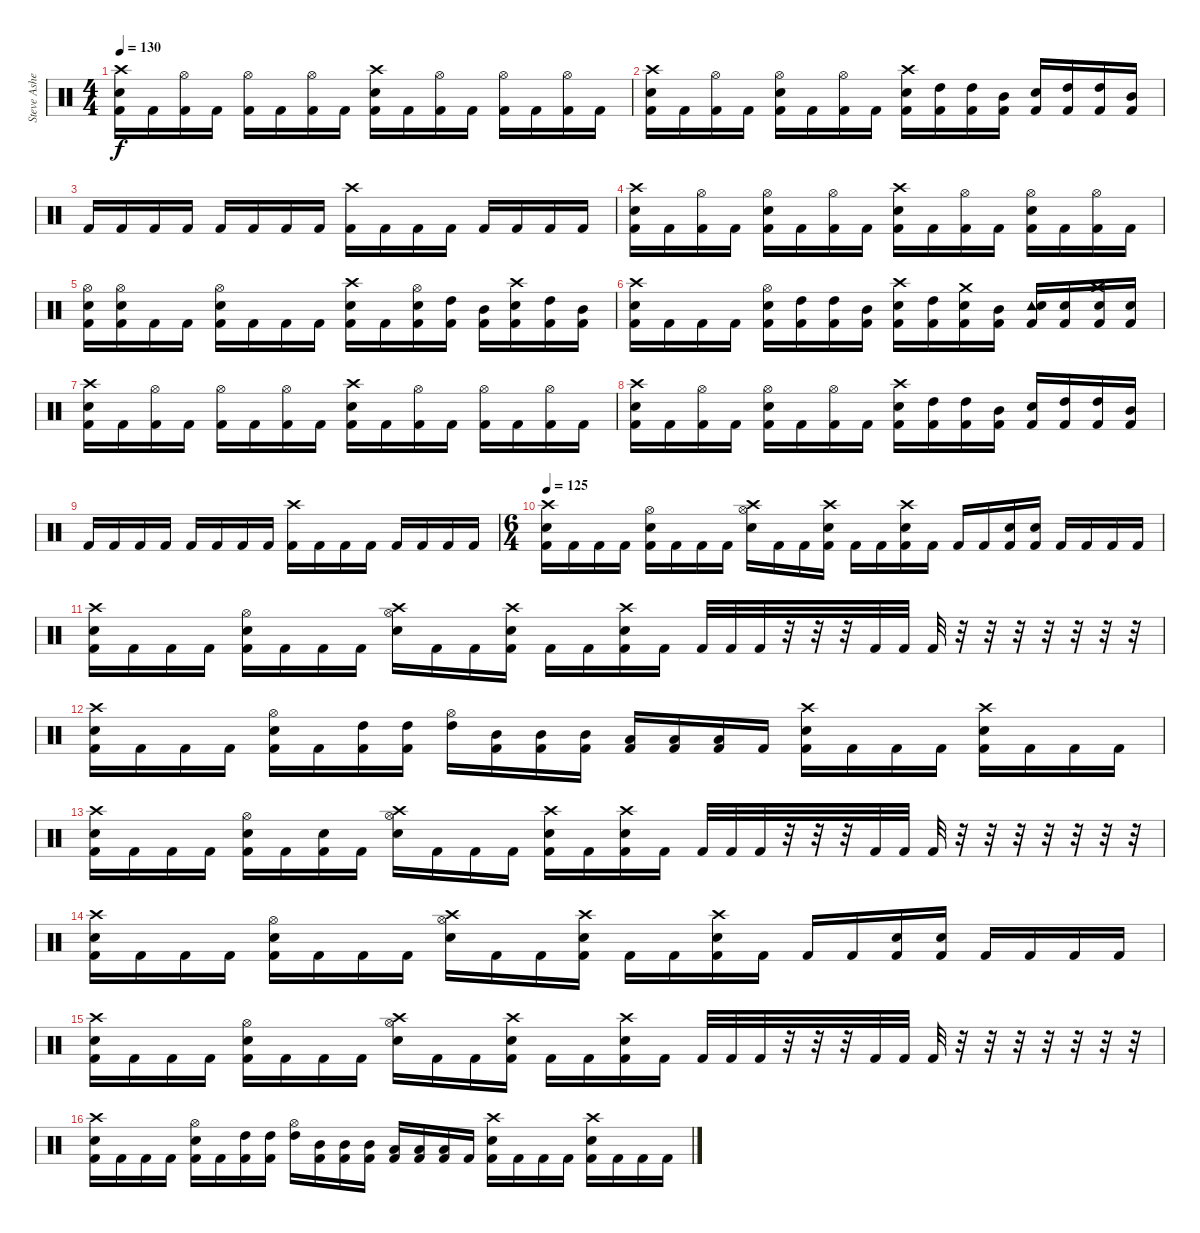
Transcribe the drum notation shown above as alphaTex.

\track ("Steve Asheim" "Steve Ashe") {instrument percussion}
\staff {score}
\articulation defaults
\ts (4 4)
\tempo 130
\clef neutral
\ks c
("Crash high (hit)" "Electric Snare (hit)" "Kick (hit) 2").16{dy f} "Kick (hit) 2".16 ("Hi-Hat (open)" "Kick (hit) 2").16 "Kick (hit) 2".16 ("Hi-Hat (open)" "Kick (hit) 2").16 "Kick (hit) 2".16 ("Hi-Hat (open)" "Kick (hit) 2").16 "Kick (hit) 2".16 ("Crash high (hit)" "Electric Snare (hit)" "Kick (hit) 2").16 "Kick (hit) 2".16 ("Hi-Hat (open)" "Kick (hit) 2").16 "Kick (hit) 2".16 ("Hi-Hat (open)" "Kick (hit) 2").16 "Kick (hit) 2".16 ("Hi-Hat (open)" "Kick (hit) 2").16 "Kick (hit) 2".16 |
("Crash high (hit)" "Electric Snare (hit)" "Kick (hit) 2").16 "Kick (hit) 2".16 ("Hi-Hat (open)" "Kick (hit) 2").16 "Kick (hit) 2".16 ("Hi-Hat (open)" "Electric Snare (hit)" "Kick (hit) 2").16 "Kick (hit) 2".16 ("Hi-Hat (open)" "Kick (hit) 2").16 "Kick (hit) 2".16 ("Crash high (hit)" "Electric Snare (hit)" "Kick (hit) 2").16 ("High Tom (hit)" "Kick (hit) 2").16 ("High Tom (hit)" "Kick (hit) 2").16 ("Mid Tom (hit)" "Kick (hit) 2").16 ("Electric Snare (hit)" "Kick (hit) 2").16 ("High Tom (hit)" "Kick (hit) 2").16 ("High Tom (hit)" "Kick (hit) 2").16 ("Mid Tom (hit)" "Kick (hit) 2").16 |
"Kick (hit) 2".16 "Kick (hit) 2".16 "Kick (hit) 2".16 "Kick (hit) 2".16 "Kick (hit) 2".16 "Kick (hit) 2".16 "Kick (hit) 2".16 "Kick (hit) 2".16 ("Crash high (hit)" "Kick (hit) 2").16 "Kick (hit) 2".16 "Kick (hit) 2".16 "Kick (hit) 2".16 "Kick (hit) 2".16 "Kick (hit) 2".16 "Kick (hit) 2".16 "Kick (hit) 2".16 |
("Crash high (hit)" "Electric Snare (hit)" "Kick (hit) 2").16 "Kick (hit) 2".16 ("Hi-Hat (open)" "Kick (hit) 2").16 "Kick (hit) 2".16 ("Hi-Hat (open)" "Electric Snare (hit)" "Kick (hit) 2").16 "Kick (hit) 2".16 ("Hi-Hat (open)" "Kick (hit) 2").16 "Kick (hit) 2".16 ("Crash high (hit)" "Electric Snare (hit)" "Kick (hit) 2").16 "Kick (hit) 2".16 ("Hi-Hat (open)" "Kick (hit) 2").16 "Kick (hit) 2".16 ("Hi-Hat (open)" "Electric Snare (hit)" "Kick (hit) 2").16 "Kick (hit) 2".16 ("Hi-Hat (open)" "Kick (hit) 2").16 "Kick (hit) 2".16 |
("Hi-Hat (open)" "Electric Snare (hit)" "Kick (hit) 2").16 ("Hi-Hat (open)" "Electric Snare (hit)" "Kick (hit) 2").16 "Kick (hit) 2".16 "Kick (hit) 2".16 ("Hi-Hat (open)" "Electric Snare (hit)" "Kick (hit) 2").16 "Kick (hit) 2".16 "Kick (hit) 2".16 "Kick (hit) 2".16 ("Crash high (hit)" "Electric Snare (hit)" "Kick (hit) 2").16 "Kick (hit) 2".16 ("Hi-Hat (open)" "Electric Snare (hit)" "Kick (hit) 2").16 ("High Tom (hit)" "Kick (hit) 2").16 ("Mid Tom (hit)" "Kick (hit) 2").16 ("Crash high (hit)" "Electric Snare (hit)" "Kick (hit) 2").16 ("High Tom (hit)" "Kick (hit) 2").16 ("Mid Tom (hit)" "Kick (hit) 2").16 |
("Crash high (hit)" "Electric Snare (hit)" "Kick (hit) 2").16 "Kick (hit) 2".16 "Kick (hit) 2".16 "Kick (hit) 2".16 ("Hi-Hat (open)" "Electric Snare (hit)" "Kick (hit) 2").16 ("High Tom (hit)" "Kick (hit) 2").16 ("High Tom (hit)" "Kick (hit) 2").16 ("Mid Tom (hit)" "Kick (hit) 2").16 ("Crash high (hit)" "Electric Snare (hit)" "Kick (hit) 2").16 ("High Tom (hit)" "Kick (hit) 2").16 ("Crash medium (hit)" "Electric Snare (hit)" "Kick (hit) 2").16 ("Mid Tom (hit)" "Kick (hit) 2").16 ("Tambourine (hit)" "Electric Snare (hit)" "Kick (hit) 2").16 ("Snare (hit) 2" "Kick (hit) 2").16 ("Crash medium (hit)" "Snare (hit) 2" "Kick (hit) 2").16 ("Snare (hit) 2" "Kick (hit) 2").16 |
("Crash high (hit)" "Electric Snare (hit)" "Kick (hit) 2").16 "Kick (hit) 2".16 ("Hi-Hat (open)" "Kick (hit) 2").16 "Kick (hit) 2".16 ("Hi-Hat (open)" "Kick (hit) 2").16 "Kick (hit) 2".16 ("Hi-Hat (open)" "Kick (hit) 2").16 "Kick (hit) 2".16 ("Crash high (hit)" "Electric Snare (hit)" "Kick (hit) 2").16 "Kick (hit) 2".16 ("Hi-Hat (open)" "Kick (hit) 2").16 "Kick (hit) 2".16 ("Hi-Hat (open)" "Kick (hit) 2").16 "Kick (hit) 2".16 ("Hi-Hat (open)" "Kick (hit) 2").16 "Kick (hit) 2".16 |
("Crash high (hit)" "Electric Snare (hit)" "Kick (hit) 2").16 "Kick (hit) 2".16 ("Hi-Hat (open)" "Kick (hit) 2").16 "Kick (hit) 2".16 ("Hi-Hat (open)" "Electric Snare (hit)" "Kick (hit) 2").16 "Kick (hit) 2".16 ("Hi-Hat (open)" "Kick (hit) 2").16 "Kick (hit) 2".16 ("Crash high (hit)" "Electric Snare (hit)" "Kick (hit) 2").16 ("High Tom (hit)" "Kick (hit) 2").16 ("High Tom (hit)" "Kick (hit) 2").16 ("Mid Tom (hit)" "Kick (hit) 2").16 ("Electric Snare (hit)" "Kick (hit) 2").16 ("High Tom (hit)" "Kick (hit) 2").16 ("High Tom (hit)" "Kick (hit) 2").16 ("Mid Tom (hit)" "Kick (hit) 2").16 |
"Kick (hit) 2".16 "Kick (hit) 2".16 "Kick (hit) 2".16 "Kick (hit) 2".16 "Kick (hit) 2".16 "Kick (hit) 2".16 "Kick (hit) 2".16 "Kick (hit) 2".16 ("Crash high (hit)" "Kick (hit) 2").16 "Kick (hit) 2".16 "Kick (hit) 2".16 "Kick (hit) 2".16 "Kick (hit) 2".16 "Kick (hit) 2".16 "Kick (hit) 2".16 "Kick (hit) 2".16 |
\ts (6 4)
\tempo 125
("Crash high (hit)" "Electric Snare (hit)" "Kick (hit) 2").16 "Kick (hit) 2".16 "Kick (hit) 2".16 "Kick (hit) 2".16 ("Hi-Hat (open)" "Electric Snare (hit)" "Kick (hit) 2").16 "Kick (hit) 2".16 "Kick (hit) 2".16 "Kick (hit) 2".16 ("Crash high (hit)" "Electric Snare (hit)" "Hi-Hat (open)").16 "Kick (hit) 2".16 "Kick (hit) 2".16 ("Crash high (hit)" "Electric Snare (hit)" "Kick (hit) 2").16 "Kick (hit) 2".16 "Kick (hit) 2".16 ("Crash high (hit)" "Electric Snare (hit)" "Kick (hit) 2").16 "Kick (hit) 2".16 "Kick (hit) 2".16 "Kick (hit) 2".16 ("Electric Snare (hit)" "Kick (hit) 2").16 ("Electric Snare (hit)" "Kick (hit) 2").16 "Kick (hit) 2".16 "Kick (hit) 2".16 "Kick (hit) 2".16 "Kick (hit) 2".16 |
("Crash high (hit)" "Electric Snare (hit)" "Kick (hit) 2").16 "Kick (hit) 2".16 "Kick (hit) 2".16 "Kick (hit) 2".16 ("Hi-Hat (open)" "Electric Snare (hit)" "Kick (hit) 2").16 "Kick (hit) 2".16 "Kick (hit) 2".16 "Kick (hit) 2".16 ("Crash high (hit)" "Electric Snare (hit)" "Hi-Hat (open)").16 "Kick (hit) 2".16 "Kick (hit) 2".16 ("Crash high (hit)" "Electric Snare (hit)" "Kick (hit) 2").16 "Kick (hit) 2".16 "Kick (hit) 2".16 ("Crash high (hit)" "Electric Snare (hit)" "Kick (hit) 2").16 "Kick (hit) 2".16 "Kick (hit) 2".32 "Kick (hit) 2".32 "Kick (hit) 2".32 r.32 r.32 r.32 "Kick (hit) 2".32 "Kick (hit) 2".32 "Kick (hit) 2".32 r.32 r.32 r.32 r.32 r.32 r.32 r.32 |
("Crash high (hit)" "Electric Snare (hit)" "Kick (hit) 2").16 "Kick (hit) 2".16 "Kick (hit) 2".16 "Kick (hit) 2".16 ("Hi-Hat (open)" "Electric Snare (hit)" "Kick (hit) 2").16 "Kick (hit) 2".16 ("High Tom (hit)" "Kick (hit) 2").16 ("High Tom (hit)" "Kick (hit) 2").16 ("High Tom (hit)" "Hi-Hat (open)").16 ("Mid Tom (hit)" "Kick (hit) 2").16 ("Mid Tom (hit)" "Kick (hit) 2").16 ("Mid Tom (hit)" "Kick (hit) 2").16 ("Low Tom (hit)" "Kick (hit) 2").16 ("Low Tom (hit)" "Kick (hit) 2").16 ("Low Tom (hit)" "Kick (hit) 2").16 "Kick (hit) 2".16 ("Crash high (hit)" "Electric Snare (hit)" "Kick (hit) 2").16 "Kick (hit) 2".16 "Kick (hit) 2".16 "Kick (hit) 2".16 ("Crash high (hit)" "Electric Snare (hit)" "Kick (hit) 2").16 "Kick (hit) 2".16 "Kick (hit) 2".16 "Kick (hit) 2".16 |
("Crash high (hit)" "Electric Snare (hit)" "Kick (hit) 2").16 "Kick (hit) 2".16 "Kick (hit) 2".16 "Kick (hit) 2".16 ("Hi-Hat (open)" "Electric Snare (hit)" "Kick (hit) 2").16 "Kick (hit) 2".16 ("Electric Snare (hit)" "Kick (hit) 2").16 "Kick (hit) 2".16 ("Crash high (hit)" "Electric Snare (hit)" "Hi-Hat (open)").16 "Kick (hit) 2".16 "Kick (hit) 2".16 "Kick (hit) 2".16 ("Crash high (hit)" "Electric Snare (hit)" "Kick (hit) 2").16 "Kick (hit) 2".16 ("Crash high (hit)" "Electric Snare (hit)" "Kick (hit) 2").16 "Kick (hit) 2".16 "Kick (hit) 2".32 "Kick (hit) 2".32 "Kick (hit) 2".32 r.32 r.32 r.32 "Kick (hit) 2".32 "Kick (hit) 2".32 "Kick (hit) 2".32 r.32 r.32 r.32 r.32 r.32 r.32 r.32 |
("Crash high (hit)" "Electric Snare (hit)" "Kick (hit) 2").16 "Kick (hit) 2".16 "Kick (hit) 2".16 "Kick (hit) 2".16 ("Hi-Hat (open)" "Electric Snare (hit)" "Kick (hit) 2").16 "Kick (hit) 2".16 "Kick (hit) 2".16 "Kick (hit) 2".16 ("Crash high (hit)" "Electric Snare (hit)" "Hi-Hat (open)").16 "Kick (hit) 2".16 "Kick (hit) 2".16 ("Crash high (hit)" "Electric Snare (hit)" "Kick (hit) 2").16 "Kick (hit) 2".16 "Kick (hit) 2".16 ("Crash high (hit)" "Electric Snare (hit)" "Kick (hit) 2").16 "Kick (hit) 2".16 "Kick (hit) 2".16 "Kick (hit) 2".16 ("Electric Snare (hit)" "Kick (hit) 2").16 ("Electric Snare (hit)" "Kick (hit) 2").16 "Kick (hit) 2".16 "Kick (hit) 2".16 "Kick (hit) 2".16 "Kick (hit) 2".16 |
("Crash high (hit)" "Electric Snare (hit)" "Kick (hit) 2").16 "Kick (hit) 2".16 "Kick (hit) 2".16 "Kick (hit) 2".16 ("Hi-Hat (open)" "Electric Snare (hit)" "Kick (hit) 2").16 "Kick (hit) 2".16 "Kick (hit) 2".16 "Kick (hit) 2".16 ("Crash high (hit)" "Electric Snare (hit)" "Hi-Hat (open)").16 "Kick (hit) 2".16 "Kick (hit) 2".16 ("Crash high (hit)" "Electric Snare (hit)" "Kick (hit) 2").16 "Kick (hit) 2".16 "Kick (hit) 2".16 ("Crash high (hit)" "Electric Snare (hit)" "Kick (hit) 2").16 "Kick (hit) 2".16 "Kick (hit) 2".32 "Kick (hit) 2".32 "Kick (hit) 2".32 r.32 r.32 r.32 "Kick (hit) 2".32 "Kick (hit) 2".32 "Kick (hit) 2".32 r.32 r.32 r.32 r.32 r.32 r.32 r.32 |
("Crash high (hit)" "Electric Snare (hit)" "Kick (hit) 2").16 "Kick (hit) 2".16 "Kick (hit) 2".16 "Kick (hit) 2".16 ("Hi-Hat (open)" "Electric Snare (hit)" "Kick (hit) 2").16 "Kick (hit) 2".16 ("High Tom (hit)" "Kick (hit) 2").16 ("High Tom (hit)" "Kick (hit) 2").16 ("High Tom (hit)" "Hi-Hat (open)").16 ("Mid Tom (hit)" "Kick (hit) 2").16 ("Mid Tom (hit)" "Kick (hit) 2").16 ("Mid Tom (hit)" "Kick (hit) 2").16 ("Low Tom (hit)" "Kick (hit) 2").16 ("Low Tom (hit)" "Kick (hit) 2").16 ("Low Tom (hit)" "Kick (hit) 2").16 "Kick (hit) 2".16 ("Crash high (hit)" "Electric Snare (hit)" "Kick (hit) 2").16 "Kick (hit) 2".16 "Kick (hit) 2".16 "Kick (hit) 2".16 ("Crash high (hit)" "Electric Snare (hit)" "Kick (hit) 2").16 "Kick (hit) 2".16 "Kick (hit) 2".16 "Kick (hit) 2".16
